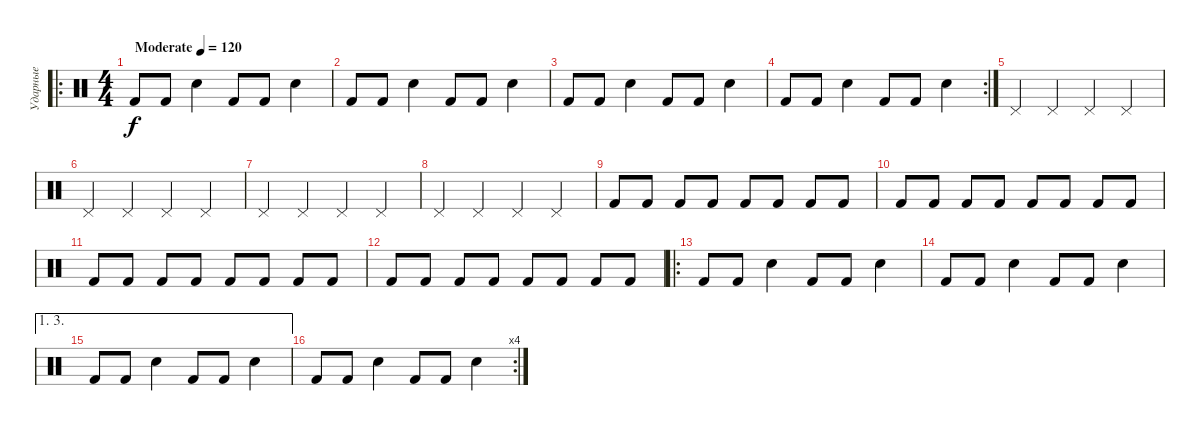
\track ("Ударные" "Ударные") {instrument percussion}
\staff {score}
\articulation defaults
\ro
\ts (4 4)
\tempo (120 "Moderate")
\clef neutral
\ks c "Kick (hit) 2".8{dy f} "Kick (hit) 2".8 "Electric Snare (hit)".4 "Kick (hit) 2".8 "Kick (hit) 2".8 "Electric Snare (hit)".4
|
"Kick (hit) 2".8 "Kick (hit) 2".8 "Electric Snare (hit)".4 "Kick (hit) 2".8 "Kick (hit) 2".8 "Electric Snare (hit)".4 |
"Kick (hit) 2".8 "Kick (hit) 2".8 "Electric Snare (hit)".4 "Kick (hit) 2".8 "Kick (hit) 2".8 "Electric Snare (hit)".4 |
\rc 2 "Kick (hit) 2".8 "Kick (hit) 2".8 "Electric Snare (hit)".4 "Kick (hit) 2".8 "Kick (hit) 2".8 "Electric Snare (hit)".4
|
"Pedal Hi-Hat (hit)".4 "Pedal Hi-Hat (hit)".4 "Pedal Hi-Hat (hit)".4 "Pedal Hi-Hat (hit)".4 |
"Pedal Hi-Hat (hit)".4 "Pedal Hi-Hat (hit)".4 "Pedal Hi-Hat (hit)".4 "Pedal Hi-Hat (hit)".4 |
"Pedal Hi-Hat (hit)".4 "Pedal Hi-Hat (hit)".4 "Pedal Hi-Hat (hit)".4 "Pedal Hi-Hat (hit)".4 |
"Pedal Hi-Hat (hit)".4 "Pedal Hi-Hat (hit)".4 "Pedal Hi-Hat (hit)".4 "Pedal Hi-Hat (hit)".4 |
"Kick (hit) 2".8 "Kick (hit) 2".8 "Kick (hit) 2".8 "Kick (hit) 2".8 "Kick (hit) 2".8 "Kick (hit) 2".8 "Kick (hit) 2".8 "Kick (hit) 2".8 |
"Kick (hit) 2".8 "Kick (hit) 2".8 "Kick (hit) 2".8 "Kick (hit) 2".8 "Kick (hit) 2".8 "Kick (hit) 2".8 "Kick (hit) 2".8 "Kick (hit) 2".8 |
"Kick (hit) 2".8 "Kick (hit) 2".8 "Kick (hit) 2".8 "Kick (hit) 2".8 "Kick (hit) 2".8 "Kick (hit) 2".8 "Kick (hit) 2".8 "Kick (hit) 2".8 |
"Kick (hit) 2".8 "Kick (hit) 2".8 "Kick (hit) 2".8 "Kick (hit) 2".8 "Kick (hit) 2".8 "Kick (hit) 2".8 "Kick (hit) 2".8 "Kick (hit) 2".8 |
\ro "Kick (hit) 2".8 "Kick (hit) 2".8 "Electric Snare (hit)".4 "Kick (hit) 2".8 "Kick (hit) 2".8 "Electric Snare (hit)".4
|
"Kick (hit) 2".8 "Kick (hit) 2".8 "Electric Snare (hit)".4 "Kick (hit) 2".8 "Kick (hit) 2".8 "Electric Snare (hit)".4 |
\ae (1 3)
"Kick (hit) 2".8 "Kick (hit) 2".8 "Electric Snare (hit)".4 "Kick (hit) 2".8 "Kick (hit) 2".8 "Electric Snare (hit)".4 |
\rc 4 "Kick (hit) 2".8 "Kick (hit) 2".8 "Electric Snare (hit)".4 "Kick (hit) 2".8 "Kick (hit) 2".8 "Electric Snare (hit)".4
